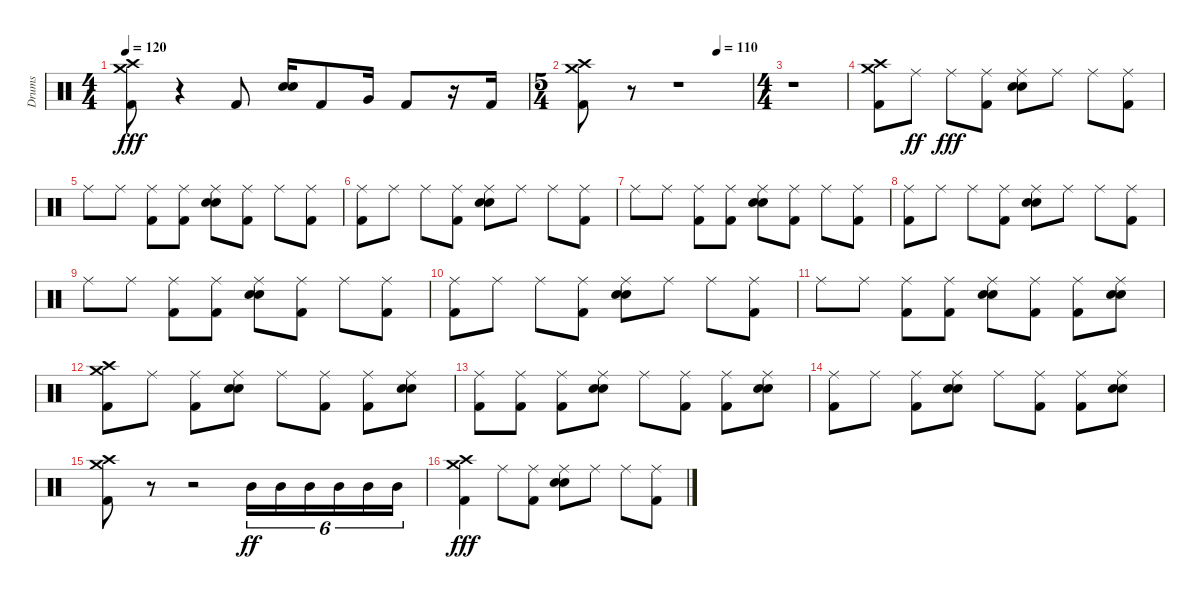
\track ("Drums" "Drums") {instrument percussion}
\staff {score}
\articulation defaults
\ts (4 4)
\tempo 120
\clef neutral
\ks c
("Kick (hit) 2" "Crash medium (hit)" "Crash high (hit)").8{dy fff} r.4 "Kick (hit) 2".8 ("Electric Snare (hit)" "Snare (hit) 2").16 "Kick (hit) 2".8 "Very Low Tom (hit)".16 "Kick (hit) 2".8 r.16 "Kick (hit) 2".16 |
\ts (5 4)
\tempo (110 0.8)
("Crash medium (hit)" "Crash high (hit)" "Kick (hit) 2").8 r.8 r.1 |
\ts (4 4)
r.1 |
("Crash medium (hit)" "Crash high (hit)" "Kick (hit) 2").8 "Ride (middle)".8{dy ff} "Ride (middle)".8{dy fff} ("Kick (hit) 2" "Ride (middle)").8 ("Ride (middle)" "Snare (hit) 2" "Electric Snare (hit)").8 "Ride (middle)".8 "Ride (middle)".8 ("Ride (middle)" "Kick (hit) 2").8 |
"Ride (middle)".8 "Ride (middle)".8 ("Ride (middle)" "Kick (hit) 2").8 ("Ride (middle)" "Kick (hit) 2").8 ("Ride (middle)" "Snare (hit) 2" "Electric Snare (hit)").8 ("Ride (middle)" "Kick (hit) 2").8 "Ride (middle)".8 ("Ride (middle)" "Kick (hit) 2").8 |
("Kick (hit) 2" "Ride (middle)").8 "Ride (middle)".8 "Ride (middle)".8 ("Kick (hit) 2" "Ride (middle)").8 ("Ride (middle)" "Snare (hit) 2" "Electric Snare (hit)").8 "Ride (middle)".8 "Ride (middle)".8 ("Ride (middle)" "Kick (hit) 2").8 |
"Ride (middle)".8 "Ride (middle)".8 ("Ride (middle)" "Kick (hit) 2").8 ("Ride (middle)" "Kick (hit) 2").8 ("Ride (middle)" "Snare (hit) 2" "Electric Snare (hit)").8 ("Ride (middle)" "Kick (hit) 2").8 "Ride (middle)".8 ("Ride (middle)" "Kick (hit) 2").8 |
("Ride (middle)" "Kick (hit) 2").8 "Ride (middle)".8 "Ride (middle)".8 ("Kick (hit) 2" "Ride (middle)").8 ("Ride (middle)" "Snare (hit) 2" "Electric Snare (hit)").8 "Ride (middle)".8 "Ride (middle)".8 ("Ride (middle)" "Kick (hit) 2").8 |
"Ride (middle)".8 "Ride (middle)".8 ("Ride (middle)" "Kick (hit) 2").8 ("Ride (middle)" "Kick (hit) 2").8 ("Ride (middle)" "Snare (hit) 2" "Electric Snare (hit)").8 ("Ride (middle)" "Kick (hit) 2").8 "Ride (middle)".8 ("Ride (middle)" "Kick (hit) 2").8 |
("Ride (middle)" "Kick (hit) 2").8 "Ride (middle)".8 "Ride (middle)".8 ("Kick (hit) 2" "Ride (middle)").8 ("Ride (middle)" "Snare (hit) 2" "Electric Snare (hit)").8 "Ride (middle)".8 "Ride (middle)".8 ("Ride (middle)" "Kick (hit) 2").8 |
"Ride (middle)".8 "Ride (middle)".8 ("Ride (middle)" "Kick (hit) 2").8 ("Ride (middle)" "Kick (hit) 2").8 ("Ride (middle)" "Snare (hit) 2" "Electric Snare (hit)").8 ("Ride (middle)" "Kick (hit) 2").8 ("Ride (middle)" "Kick (hit) 2").8 ("Ride (middle)" "Snare (hit) 2" "Electric Snare (hit)").8 |
("Crash medium (hit)" "Crash high (hit)" "Kick (hit) 2").8 "Ride (middle)".8 ("Kick (hit) 2" "Ride (middle)").8 ("Ride (middle)" "Snare (hit) 2" "Electric Snare (hit)").8 "Ride (middle)".8 ("Ride (middle)" "Kick (hit) 2").8 ("Ride (middle)" "Kick (hit) 2").8 ("Ride (middle)" "Electric Snare (hit)" "Snare (hit) 2").8 |
("Kick (hit) 2" "Ride (middle)").8 ("Kick (hit) 2" "Ride (middle)").8 ("Ride (middle)" "Kick (hit) 2").8 ("Ride (middle)" "Electric Snare (hit)" "Snare (hit) 2").8 "Ride (middle)".8 ("Ride (middle)" "Kick (hit) 2").8 ("Ride (middle)" "Kick (hit) 2").8 ("Ride (middle)" "Electric Snare (hit)" "Snare (hit) 2").8 |
("Kick (hit) 2" "Ride (middle)").8 "Ride (middle)".8 ("Kick (hit) 2" "Ride (middle)").8 ("Ride (middle)" "Snare (hit) 2" "Electric Snare (hit)").8 "Ride (middle)".8 ("Ride (middle)" "Kick (hit) 2").8 ("Ride (middle)" "Kick (hit) 2").8 ("Ride (middle)" "Electric Snare (hit)" "Snare (hit) 2").8 |
("Kick (hit) 2" "Crash medium (hit)" "Crash high (hit)").8 r.8 r.2 "Mid Tom (hit)".16{tu (6 4) dy ff} "Mid Tom (hit)".16{tu (6 4)} "Mid Tom (hit)".16{tu (6 4)} "Mid Tom (hit)".16{tu (6 4)} "Mid Tom (hit)".16{tu (6 4)} "Mid Tom (hit)".16{tu (6 4)} |
("Kick (hit) 2" "Crash high (hit)" "Crash medium (hit)").4{dy fff} "Ride (middle)".8 ("Kick (hit) 2" "Ride (middle)").8 ("Ride (middle)" "Snare (hit) 2" "Electric Snare (hit)").8 "Ride (middle)".8 "Ride (middle)".8 ("Ride (middle)" "Kick (hit) 2").8
